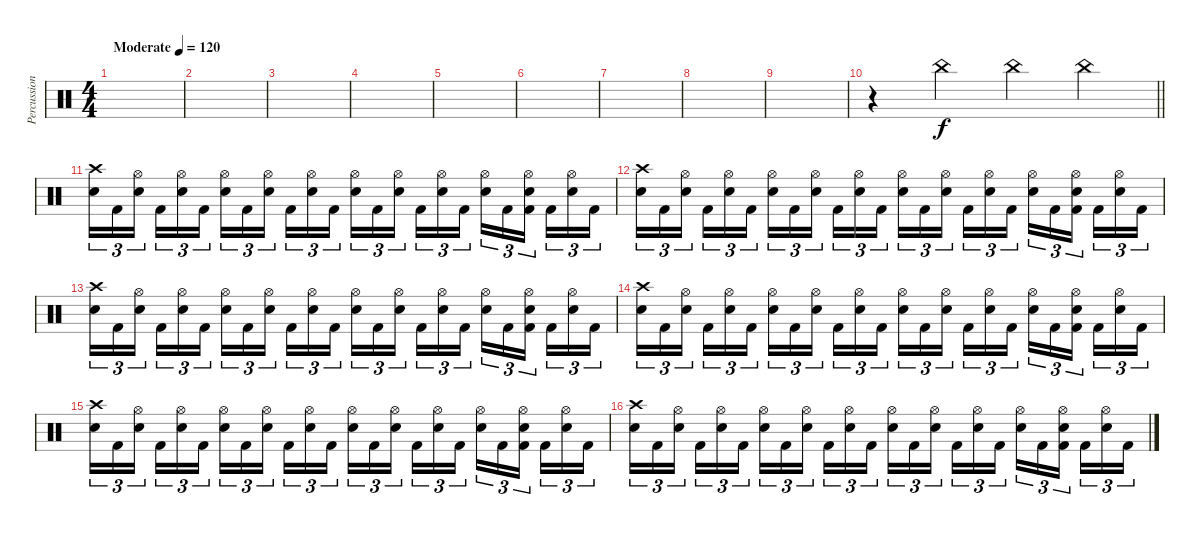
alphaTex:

\track ("Percussion" "Percussion") {instrument percussion}
\staff {score}
\articulation defaults
\ts (4 4)
\tempo (120 "Moderate")
\clef neutral
\ks c
|
|
|
|
|
|
|
|
|
\barLineRight lightlight
r.4 "China (hit)".4 "China (hit)".4 "China (hit)".4 |
\section ("" "")
("Crash high (hit)" "Snare (hit) 2").16{tu (3 2)} "Kick (hit) 2".16{tu (3 2)} ("Hi-Hat (open)" "Snare (hit) 2").16{tu (3 2) beam splitsecondary} "Kick (hit) 2".16{tu (3 2)} ("Hi-Hat (open)" "Snare (hit) 2").16{tu (3 2)} "Kick (hit) 2".16{tu (3 2)} ("Hi-Hat (open)" "Snare (hit) 2").16{tu (3 2)} "Kick (hit) 2".16{tu (3 2)} ("Hi-Hat (open)" "Snare (hit) 2").16{tu (3 2) beam splitsecondary} "Kick (hit) 2".16{tu (3 2)} ("Hi-Hat (open)" "Snare (hit) 2").16{tu (3 2)} "Kick (hit) 2".16{tu (3 2)} ("Hi-Hat (open)" "Snare (hit) 2").16{tu (3 2)} "Kick (hit) 2".16{tu (3 2)} ("Hi-Hat (open)" "Snare (hit) 2").16{tu (3 2) beam splitsecondary} "Kick (hit) 2".16{tu (3 2)} ("Hi-Hat (open)" "Snare (hit) 2").16{tu (3 2)} "Kick (hit) 2".16{tu (3 2)} ("Hi-Hat (open)" "Snare (hit) 2").16{tu (3 2)} "Kick (hit) 2".16{tu (3 2)} ("Hi-Hat (open)" "Snare (hit) 2" "Kick (hit) 2").16{tu (3 2) beam splitsecondary} "Kick (hit) 2".16{tu (3 2)} ("Hi-Hat (open)" "Snare (hit) 2").16{tu (3 2)} "Kick (hit) 2".16{tu (3 2)} |
("Crash high (hit)" "Snare (hit) 2").16{tu (3 2)} "Kick (hit) 2".16{tu (3 2)} ("Hi-Hat (open)" "Snare (hit) 2").16{tu (3 2) beam splitsecondary} "Kick (hit) 2".16{tu (3 2)} ("Hi-Hat (open)" "Snare (hit) 2").16{tu (3 2)} "Kick (hit) 2".16{tu (3 2)} ("Hi-Hat (open)" "Snare (hit) 2").16{tu (3 2)} "Kick (hit) 2".16{tu (3 2)} ("Hi-Hat (open)" "Snare (hit) 2").16{tu (3 2) beam splitsecondary} "Kick (hit) 2".16{tu (3 2)} ("Hi-Hat (open)" "Snare (hit) 2").16{tu (3 2)} "Kick (hit) 2".16{tu (3 2)} ("Hi-Hat (open)" "Snare (hit) 2").16{tu (3 2)} "Kick (hit) 2".16{tu (3 2)} ("Hi-Hat (open)" "Snare (hit) 2").16{tu (3 2) beam splitsecondary} "Kick (hit) 2".16{tu (3 2)} ("Hi-Hat (open)" "Snare (hit) 2").16{tu (3 2)} "Kick (hit) 2".16{tu (3 2)} ("Hi-Hat (open)" "Snare (hit) 2").16{tu (3 2)} "Kick (hit) 2".16{tu (3 2)} ("Hi-Hat (open)" "Snare (hit) 2" "Kick (hit) 2").16{tu (3 2) beam splitsecondary} "Kick (hit) 2".16{tu (3 2)} ("Hi-Hat (open)" "Snare (hit) 2").16{tu (3 2)} "Kick (hit) 2".16{tu (3 2)} |
("Crash high (hit)" "Snare (hit) 2").16{tu (3 2)} "Kick (hit) 2".16{tu (3 2)} ("Hi-Hat (open)" "Snare (hit) 2").16{tu (3 2) beam splitsecondary} "Kick (hit) 2".16{tu (3 2)} ("Hi-Hat (open)" "Snare (hit) 2").16{tu (3 2)} "Kick (hit) 2".16{tu (3 2)} ("Hi-Hat (open)" "Snare (hit) 2").16{tu (3 2)} "Kick (hit) 2".16{tu (3 2)} ("Hi-Hat (open)" "Snare (hit) 2").16{tu (3 2) beam splitsecondary} "Kick (hit) 2".16{tu (3 2)} ("Hi-Hat (open)" "Snare (hit) 2").16{tu (3 2)} "Kick (hit) 2".16{tu (3 2)} ("Hi-Hat (open)" "Snare (hit) 2").16{tu (3 2)} "Kick (hit) 2".16{tu (3 2)} ("Hi-Hat (open)" "Snare (hit) 2").16{tu (3 2) beam splitsecondary} "Kick (hit) 2".16{tu (3 2)} ("Hi-Hat (open)" "Snare (hit) 2").16{tu (3 2)} "Kick (hit) 2".16{tu (3 2)} ("Hi-Hat (open)" "Snare (hit) 2").16{tu (3 2)} "Kick (hit) 2".16{tu (3 2)} ("Hi-Hat (open)" "Snare (hit) 2" "Kick (hit) 2").16{tu (3 2) beam splitsecondary} "Kick (hit) 2".16{tu (3 2)} ("Hi-Hat (open)" "Snare (hit) 2").16{tu (3 2)} "Kick (hit) 2".16{tu (3 2)} |
("Crash high (hit)" "Snare (hit) 2").16{tu (3 2)} "Kick (hit) 2".16{tu (3 2)} ("Hi-Hat (open)" "Snare (hit) 2").16{tu (3 2) beam splitsecondary} "Kick (hit) 2".16{tu (3 2)} ("Hi-Hat (open)" "Snare (hit) 2").16{tu (3 2)} "Kick (hit) 2".16{tu (3 2)} ("Hi-Hat (open)" "Snare (hit) 2").16{tu (3 2)} "Kick (hit) 2".16{tu (3 2)} ("Hi-Hat (open)" "Snare (hit) 2").16{tu (3 2) beam splitsecondary} "Kick (hit) 2".16{tu (3 2)} ("Hi-Hat (open)" "Snare (hit) 2").16{tu (3 2)} "Kick (hit) 2".16{tu (3 2)} ("Hi-Hat (open)" "Snare (hit) 2").16{tu (3 2)} "Kick (hit) 2".16{tu (3 2)} ("Hi-Hat (open)" "Snare (hit) 2").16{tu (3 2) beam splitsecondary} "Kick (hit) 2".16{tu (3 2)} ("Hi-Hat (open)" "Snare (hit) 2").16{tu (3 2)} "Kick (hit) 2".16{tu (3 2)} ("Hi-Hat (open)" "Snare (hit) 2").16{tu (3 2)} "Kick (hit) 2".16{tu (3 2)} ("Hi-Hat (open)" "Snare (hit) 2" "Kick (hit) 2").16{tu (3 2) beam splitsecondary} "Kick (hit) 2".16{tu (3 2)} ("Hi-Hat (open)" "Snare (hit) 2").16{tu (3 2)} "Kick (hit) 2".16{tu (3 2)} |
("Crash high (hit)" "Snare (hit) 2").16{tu (3 2)} "Kick (hit) 2".16{tu (3 2)} ("Hi-Hat (open)" "Snare (hit) 2").16{tu (3 2) beam splitsecondary} "Kick (hit) 2".16{tu (3 2)} ("Hi-Hat (open)" "Snare (hit) 2").16{tu (3 2)} "Kick (hit) 2".16{tu (3 2)} ("Hi-Hat (open)" "Snare (hit) 2").16{tu (3 2)} "Kick (hit) 2".16{tu (3 2)} ("Hi-Hat (open)" "Snare (hit) 2").16{tu (3 2) beam splitsecondary} "Kick (hit) 2".16{tu (3 2)} ("Hi-Hat (open)" "Snare (hit) 2").16{tu (3 2)} "Kick (hit) 2".16{tu (3 2)} ("Hi-Hat (open)" "Snare (hit) 2").16{tu (3 2)} "Kick (hit) 2".16{tu (3 2)} ("Hi-Hat (open)" "Snare (hit) 2").16{tu (3 2) beam splitsecondary} "Kick (hit) 2".16{tu (3 2)} ("Hi-Hat (open)" "Snare (hit) 2").16{tu (3 2)} "Kick (hit) 2".16{tu (3 2)} ("Hi-Hat (open)" "Snare (hit) 2").16{tu (3 2)} "Kick (hit) 2".16{tu (3 2)} ("Hi-Hat (open)" "Snare (hit) 2" "Kick (hit) 2").16{tu (3 2) beam splitsecondary} "Kick (hit) 2".16{tu (3 2)} ("Hi-Hat (open)" "Snare (hit) 2").16{tu (3 2)} "Kick (hit) 2".16{tu (3 2)} |
("Crash high (hit)" "Snare (hit) 2").16{tu (3 2)} "Kick (hit) 2".16{tu (3 2)} ("Hi-Hat (open)" "Snare (hit) 2").16{tu (3 2) beam splitsecondary} "Kick (hit) 2".16{tu (3 2)} ("Hi-Hat (open)" "Snare (hit) 2").16{tu (3 2)} "Kick (hit) 2".16{tu (3 2)} ("Hi-Hat (open)" "Snare (hit) 2").16{tu (3 2)} "Kick (hit) 2".16{tu (3 2)} ("Hi-Hat (open)" "Snare (hit) 2").16{tu (3 2) beam splitsecondary} "Kick (hit) 2".16{tu (3 2)} ("Hi-Hat (open)" "Snare (hit) 2").16{tu (3 2)} "Kick (hit) 2".16{tu (3 2)} ("Hi-Hat (open)" "Snare (hit) 2").16{tu (3 2)} "Kick (hit) 2".16{tu (3 2)} ("Hi-Hat (open)" "Snare (hit) 2").16{tu (3 2) beam splitsecondary} "Kick (hit) 2".16{tu (3 2)} ("Hi-Hat (open)" "Snare (hit) 2").16{tu (3 2)} "Kick (hit) 2".16{tu (3 2)} ("Hi-Hat (open)" "Snare (hit) 2").16{tu (3 2)} "Kick (hit) 2".16{tu (3 2)} ("Hi-Hat (open)" "Snare (hit) 2" "Kick (hit) 2").16{tu (3 2) beam splitsecondary} "Kick (hit) 2".16{tu (3 2)} ("Hi-Hat (open)" "Snare (hit) 2").16{tu (3 2)} "Kick (hit) 2".16{tu (3 2)}
